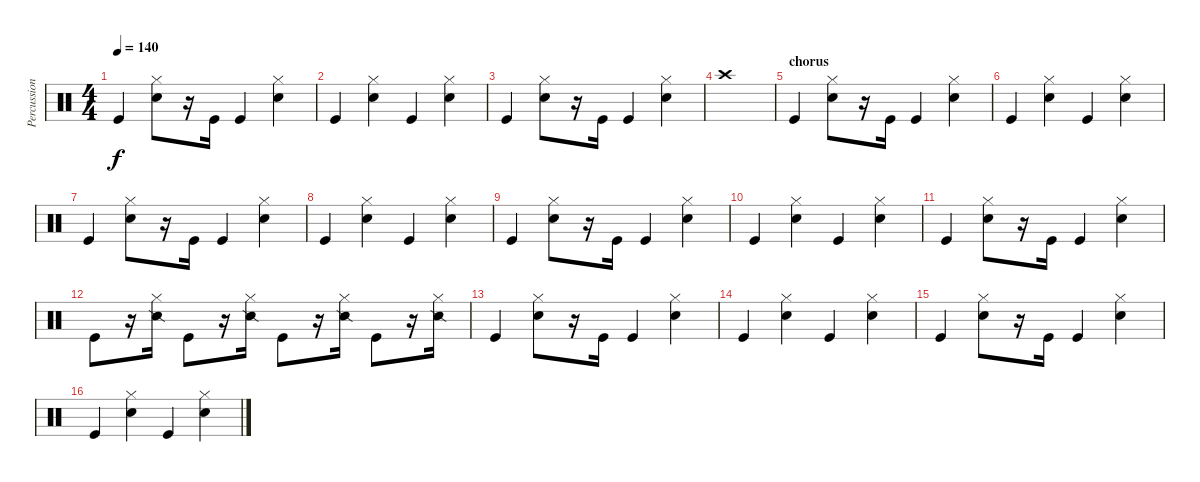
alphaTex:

\track ("Percussions" "Percussion") {instrument percussion}
\staff {score}
\articulation defaults
\ts (4 4)
\tempo 140
\clef neutral
\ks c "Kick (hit)".4{dy f}
("Hi-Hat (closed)" "Electric Snare (hit)").8 r.16 "Kick (hit)".16 "Kick (hit)".4 ("Hi-Hat (closed)" "Electric Snare (hit)").4 |
"Kick (hit)".4 ("Hi-Hat (closed)" "Electric Snare (hit)").4 "Kick (hit)".4 ("Hi-Hat (closed)" "Electric Snare (hit)").4 |
"Kick (hit)".4 ("Hi-Hat (closed)" "Electric Snare (hit)").8 r.16 "Kick (hit)".16 "Kick (hit)".4 ("Hi-Hat (closed)" "Electric Snare (hit)").4 |
"Crash high (hit)".1 |
\section ("" "chorus")
"Kick (hit)".4 ("Hi-Hat (closed)" "Electric Snare (hit)").8 r.16 "Kick (hit)".16 "Kick (hit)".4 ("Hi-Hat (closed)" "Electric Snare (hit)").4 |
"Kick (hit)".4 ("Hi-Hat (closed)" "Electric Snare (hit)").4 "Kick (hit)".4 ("Hi-Hat (closed)" "Electric Snare (hit)").4 |
"Kick (hit)".4 ("Hi-Hat (closed)" "Electric Snare (hit)").8 r.16 "Kick (hit)".16 "Kick (hit)".4 ("Hi-Hat (closed)" "Electric Snare (hit)").4 |
"Kick (hit)".4 ("Hi-Hat (closed)" "Electric Snare (hit)").4 "Kick (hit)".4 ("Hi-Hat (closed)" "Electric Snare (hit)").4 |
"Kick (hit)".4 ("Hi-Hat (closed)" "Electric Snare (hit)").8 r.16 "Kick (hit)".16 "Kick (hit)".4 ("Hi-Hat (closed)" "Electric Snare (hit)").4 |
"Kick (hit)".4 ("Hi-Hat (closed)" "Electric Snare (hit)").4 "Kick (hit)".4 ("Hi-Hat (closed)" "Electric Snare (hit)").4 |
"Kick (hit)".4 ("Hi-Hat (closed)" "Electric Snare (hit)").8 r.16 "Kick (hit)".16 "Kick (hit)".4 ("Hi-Hat (closed)" "Electric Snare (hit)").4 |
"Kick (hit)".8 r.16 ("Hi-Hat (closed)" "Snare (side stick) 2").16 "Kick (hit)".8 r.16 ("Hi-Hat (closed)" "Snare (side stick) 2").16 "Kick (hit)".8 r.16 ("Hi-Hat (closed)" "Snare (side stick) 2").16 "Kick (hit)".8 r.16 ("Hi-Hat (closed)" "Snare (side stick) 2").16 |
"Kick (hit)".4 ("Hi-Hat (closed)" "Electric Snare (hit)").8 r.16 "Kick (hit)".16 "Kick (hit)".4 ("Hi-Hat (closed)" "Electric Snare (hit)").4 |
"Kick (hit)".4 ("Hi-Hat (closed)" "Electric Snare (hit)").4 "Kick (hit)".4 ("Hi-Hat (closed)" "Electric Snare (hit)").4 |
"Kick (hit)".4 ("Hi-Hat (closed)" "Electric Snare (hit)").8 r.16 "Kick (hit)".16 "Kick (hit)".4 ("Hi-Hat (closed)" "Electric Snare (hit)").4 |
"Kick (hit)".4 ("Hi-Hat (closed)" "Electric Snare (hit)").4 "Kick (hit)".4 ("Hi-Hat (closed)" "Electric Snare (hit)").4
